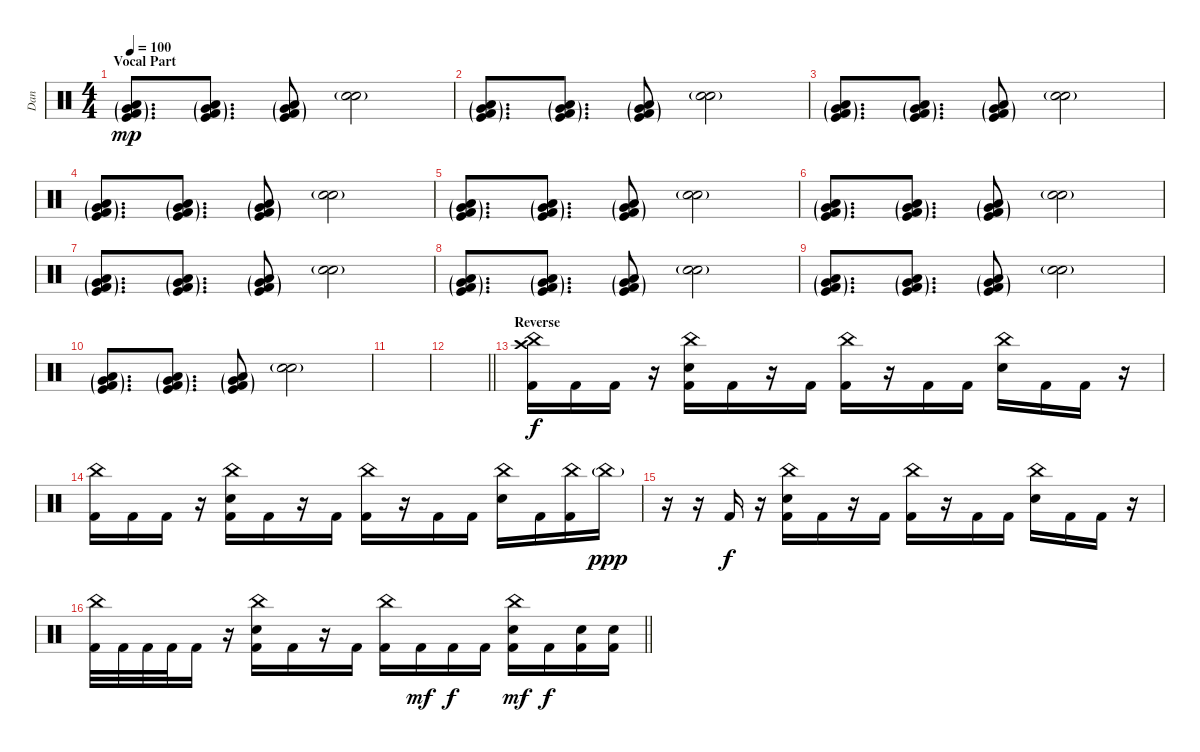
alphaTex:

\track ("Dan" "Dan") {instrument percussion}
\staff {score}
\articulation defaults
\ts (4 4)
\section ("" "Vocal Part")
\tempo 100
\clef neutral
\ks c
("Very Low Tom (hit)"{g} "Low Tom (hit)"{g} "Kick (hit)"{g} "Kick (hit) 2"{g}).8{d dy mp} ("Very Low Tom (hit)"{g} "Low Tom (hit)"{g} "Kick (hit)"{g} "Kick (hit) 2"{g}).8{d} ("Very Low Tom (hit)"{g} "Low Tom (hit)"{g} "Kick (hit)"{g} "Kick (hit) 2"{g}).8 ("Electric Snare (hit)"{g} "Snare (hit) 2"{g}).2 |
("Very Low Tom (hit)"{g} "Low Tom (hit)"{g} "Kick (hit)"{g} "Kick (hit) 2"{g}).8{d} ("Very Low Tom (hit)"{g} "Low Tom (hit)"{g} "Kick (hit)"{g} "Kick (hit) 2"{g}).8{d} ("Very Low Tom (hit)"{g} "Low Tom (hit)"{g} "Kick (hit)"{g} "Kick (hit) 2"{g}).8 ("Electric Snare (hit)"{g} "Snare (hit) 2"{g}).2 |
("Very Low Tom (hit)"{g} "Low Tom (hit)"{g} "Kick (hit)"{g} "Kick (hit) 2"{g}).8{d} ("Very Low Tom (hit)"{g} "Low Tom (hit)"{g} "Kick (hit)"{g} "Kick (hit) 2"{g}).8{d} ("Very Low Tom (hit)"{g} "Low Tom (hit)"{g} "Kick (hit)"{g} "Kick (hit) 2"{g}).8 ("Electric Snare (hit)"{g} "Snare (hit) 2"{g}).2 |
("Very Low Tom (hit)"{g} "Low Tom (hit)"{g} "Kick (hit)"{g} "Kick (hit) 2"{g}).8{d} ("Very Low Tom (hit)"{g} "Low Tom (hit)"{g} "Kick (hit)"{g} "Kick (hit) 2"{g}).8{d} ("Very Low Tom (hit)"{g} "Low Tom (hit)"{g} "Kick (hit)"{g} "Kick (hit) 2"{g}).8 ("Electric Snare (hit)"{g} "Snare (hit) 2"{g}).2 |
("Very Low Tom (hit)"{g} "Low Tom (hit)"{g} "Kick (hit)"{g} "Kick (hit) 2"{g}).8{d} ("Very Low Tom (hit)"{g} "Low Tom (hit)"{g} "Kick (hit)"{g} "Kick (hit) 2"{g}).8{d} ("Very Low Tom (hit)"{g} "Low Tom (hit)"{g} "Kick (hit)"{g} "Kick (hit) 2"{g}).8 ("Electric Snare (hit)"{g} "Snare (hit) 2"{g}).2 |
("Very Low Tom (hit)"{g} "Low Tom (hit)"{g} "Kick (hit)"{g} "Kick (hit) 2"{g}).8{d} ("Very Low Tom (hit)"{g} "Low Tom (hit)"{g} "Kick (hit)"{g} "Kick (hit) 2"{g}).8{d} ("Very Low Tom (hit)"{g} "Low Tom (hit)"{g} "Kick (hit)"{g} "Kick (hit) 2"{g}).8 ("Electric Snare (hit)"{g} "Snare (hit) 2"{g}).2 |
("Very Low Tom (hit)"{g} "Low Tom (hit)"{g} "Kick (hit)"{g} "Kick (hit) 2"{g}).8{d} ("Very Low Tom (hit)"{g} "Low Tom (hit)"{g} "Kick (hit)"{g} "Kick (hit) 2"{g}).8{d} ("Very Low Tom (hit)"{g} "Low Tom (hit)"{g} "Kick (hit)"{g} "Kick (hit) 2"{g}).8 ("Electric Snare (hit)"{g} "Snare (hit) 2"{g}).2 |
("Very Low Tom (hit)"{g} "Low Tom (hit)"{g} "Kick (hit)"{g} "Kick (hit) 2"{g}).8{d} ("Very Low Tom (hit)"{g} "Low Tom (hit)"{g} "Kick (hit)"{g} "Kick (hit) 2"{g}).8{d} ("Very Low Tom (hit)"{g} "Low Tom (hit)"{g} "Kick (hit)"{g} "Kick (hit) 2"{g}).8 ("Electric Snare (hit)"{g} "Snare (hit) 2"{g}).2 |
("Very Low Tom (hit)"{g} "Low Tom (hit)"{g} "Kick (hit)"{g} "Kick (hit) 2"{g}).8{d} ("Very Low Tom (hit)"{g} "Low Tom (hit)"{g} "Kick (hit)"{g} "Kick (hit) 2"{g}).8{d} ("Very Low Tom (hit)"{g} "Low Tom (hit)"{g} "Kick (hit)"{g} "Kick (hit) 2"{g}).8 ("Electric Snare (hit)"{g} "Snare (hit) 2"{g}).2 |
("Very Low Tom (hit)"{g} "Low Tom (hit)"{g} "Kick (hit)"{g} "Kick (hit) 2"{g}).8{d} ("Very Low Tom (hit)"{g} "Low Tom (hit)"{g} "Kick (hit)"{g} "Kick (hit) 2"{g}).8{d} ("Very Low Tom (hit)"{g} "Low Tom (hit)"{g} "Kick (hit)"{g} "Kick (hit) 2"{g}).8 ("Electric Snare (hit)"{g} "Snare (hit) 2"{g}).2 |
|
\barLineRight lightlight
|
\section ("" "Reverse")
("Crash high (hit)" "China (hit)" "Kick (hit) 2").16{dy f} "Kick (hit) 2".16 "Kick (hit) 2".16 r.16 ("China (hit)" "Snare (hit) 2" "Kick (hit) 2").16 "Kick (hit) 2".16 r.16 "Kick (hit) 2".16 ("China (hit)" "Kick (hit) 2").16 r.16 "Kick (hit) 2".16 "Kick (hit) 2".16 ("China (hit)" "Snare (hit) 2").16 "Kick (hit) 2".16 "Kick (hit) 2".16 r.16 |
("China (hit)" "Kick (hit) 2").16 "Kick (hit) 2".16 "Kick (hit) 2".16 r.16 ("China (hit)" "Snare (hit) 2" "Kick (hit) 2").16 "Kick (hit) 2".16 r.16 "Kick (hit) 2".16 ("China (hit)" "Kick (hit) 2").16 r.16 "Kick (hit) 2".16 "Kick (hit) 2".16 ("China (hit)" "Snare (hit) 2").16 "Kick (hit) 2".16 ("China (hit)" "Kick (hit) 2").16 "China (hit)"{g}.16{dy ppp} |
r.16 r.16 "Kick (hit) 2".16{dy f} r.16 ("China (hit)" "Snare (hit) 2" "Kick (hit) 2").16 "Kick (hit) 2".16 r.16 "Kick (hit) 2".16 ("China (hit)" "Kick (hit) 2").16 r.16 "Kick (hit) 2".16 "Kick (hit) 2".16 ("China (hit)" "Snare (hit) 2").16 "Kick (hit) 2".16 "Kick (hit) 2".16 r.16 |
\barLineRight lightlight
("China (hit)" "Kick (hit) 2").32 "Kick (hit) 2".32 "Kick (hit) 2".32 "Kick (hit) 2".32 "Kick (hit) 2".16 r.16 ("China (hit)" "Snare (hit) 2" "Kick (hit) 2").16 "Kick (hit) 2".16 r.16 "Kick (hit) 2".16 ("China (hit)" "Kick (hit) 2").16 "Kick (hit) 2".16{dy mf} "Kick (hit) 2".16{dy f} "Kick (hit) 2".16 ("China (hit)" "Snare (hit) 2" "Kick (hit) 2").16{dy mf} "Kick (hit) 2".16{dy f} ("Snare (hit) 2" "Kick (hit) 2").16 ("Snare (hit) 2" "Kick (hit) 2").16
